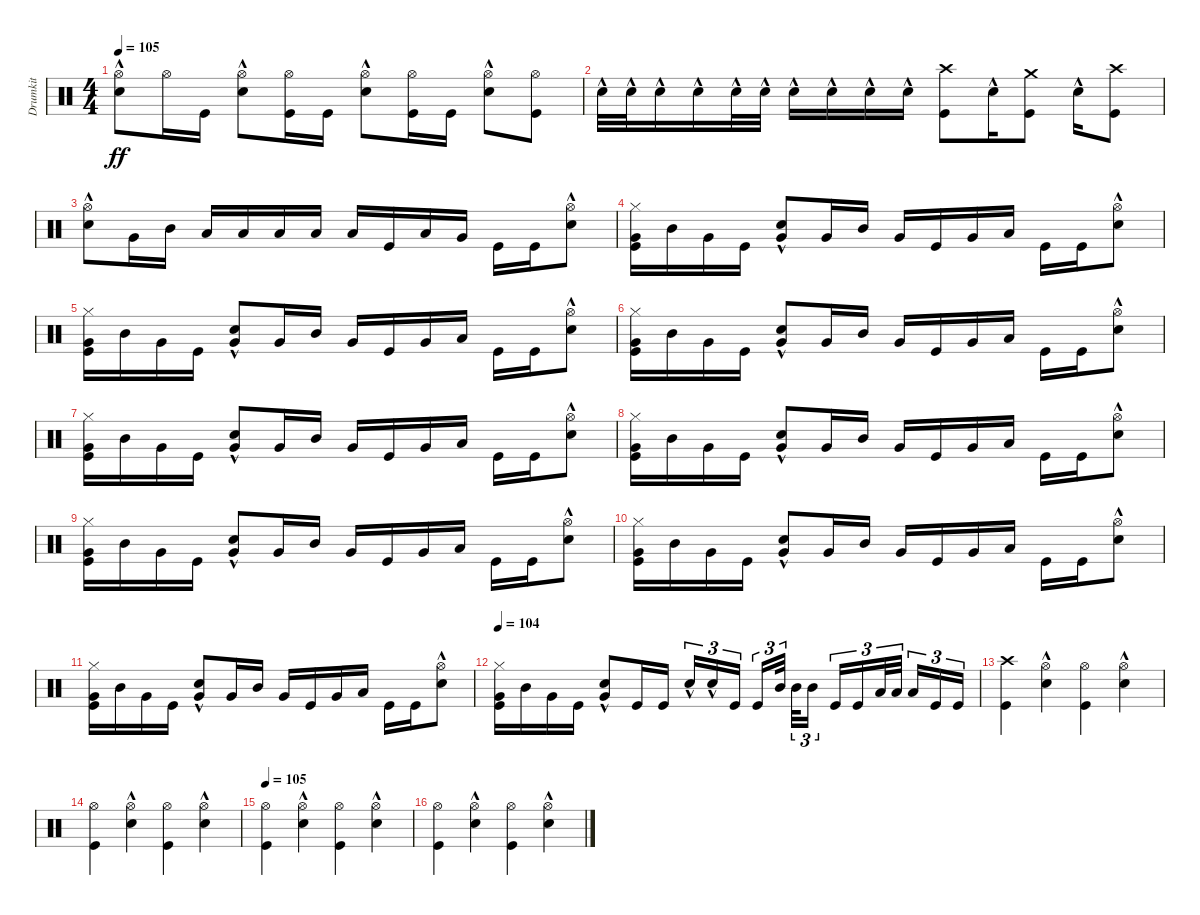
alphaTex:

\track ("Drumkit" "Drumkit") {instrument percussion}
\staff {score}
\articulation defaults
\ts (4 4)
\tempo 105
\clef neutral
\ks c
("Snare (hit) 2"{hac} "Hi-Hat (open)").8{dy ff} "Hi-Hat (open)".16 "Kick (hit)".16 ("Snare (hit) 2"{hac} "Hi-Hat (open)").8 ("Kick (hit)" "Hi-Hat (open)").16 "Kick (hit)".16 ("Hi-Hat (open)" "Snare (hit) 2"{hac}).8 ("Kick (hit)" "Hi-Hat (open)").16 "Kick (hit)".16 ("Snare (hit) 2"{hac} "Hi-Hat (open)").8 ("Kick (hit)" "Hi-Hat (open)").8 |
\ks aminor "Snare (hit) 2"{hac}.32 "Snare (hit) 2"{hac}.32 "Snare (hit) 2"{hac}.16 "Snare (hit) 2"{hac}.16 "Snare (hit) 2"{hac}.32 "Snare (hit) 2"{hac}.32 "Snare (hit) 2"{hac}.16 "Snare (hit) 2"{hac}.16 "Snare (hit) 2"{hac}.16 "Snare (hit) 2"{hac}.16
("Kick (hit)" "Crash high (hit)").8 "Snare (hit) 2"{hac}.16 ("Kick (hit)" "Crash medium (hit)").8 "Snare (hit) 2"{hac}.16 ("Kick (hit)" "Crash high (hit)").8 |
("Snare (hit) 2"{hac} "Hi-Hat (open)").8 "Very Low Tom (hit)".16 "Mid Tom (hit)".16 "Low Floor Tom (hit)".16 "Low Tom (hit)".16 "Low Floor Tom (hit)".16 "Low Tom (hit)".16 "Low Floor Tom (hit)".16 "Kick (hit)".16 "Low Floor Tom (hit)".16 "Very Low Tom (hit)".16 "Kick (hit)".16 "Kick (hit)".16 ("Snare (hit) 2"{hac} "Hi-Hat (open)").8 |
("Hi-Hat (closed)" "Kick (hit)" "Very Low Tom (hit)").16 "Mid Tom (hit)".16 "Very Low Tom (hit)".16 "Kick (hit)".16 ("Very Low Tom (hit)" "Snare (hit) 2"{hac}).8 "Very Low Tom (hit)".16 "Mid Tom (hit)".16 "Very Low Tom (hit)".16 "Kick (hit)".16 "Very Low Tom (hit)".16 "Low Tom (hit)".16 "Kick (hit)".16 "Kick (hit)".16 ("Snare (hit) 2"{hac} "Hi-Hat (open)").8 |
("Hi-Hat (closed)" "Kick (hit)" "Very Low Tom (hit)").16 "Mid Tom (hit)".16 "Very Low Tom (hit)".16 "Kick (hit)".16 ("Very Low Tom (hit)" "Snare (hit) 2"{hac}).8 "Very Low Tom (hit)".16 "Mid Tom (hit)".16 "Very Low Tom (hit)".16 "Kick (hit)".16 "Very Low Tom (hit)".16 "Low Tom (hit)".16 "Kick (hit)".16 "Kick (hit)".16 ("Snare (hit) 2"{hac} "Hi-Hat (open)").8 |
("Hi-Hat (closed)" "Kick (hit)" "Very Low Tom (hit)").16 "Mid Tom (hit)".16 "Very Low Tom (hit)".16 "Kick (hit)".16 ("Very Low Tom (hit)" "Snare (hit) 2"{hac}).8 "Very Low Tom (hit)".16 "Mid Tom (hit)".16 "Very Low Tom (hit)".16 "Kick (hit)".16 "Very Low Tom (hit)".16 "Low Tom (hit)".16 "Kick (hit)".16 "Kick (hit)".16 ("Snare (hit) 2"{hac} "Hi-Hat (open)").8 |
("Hi-Hat (closed)" "Kick (hit)" "Very Low Tom (hit)").16 "Mid Tom (hit)".16 "Very Low Tom (hit)".16 "Kick (hit)".16 ("Very Low Tom (hit)" "Snare (hit) 2"{hac}).8 "Very Low Tom (hit)".16 "Mid Tom (hit)".16 "Very Low Tom (hit)".16 "Kick (hit)".16 "Very Low Tom (hit)".16 "Low Tom (hit)".16 "Kick (hit)".16 "Kick (hit)".16 ("Snare (hit) 2"{hac} "Hi-Hat (open)").8 |
("Hi-Hat (closed)" "Kick (hit)" "Very Low Tom (hit)").16 "Mid Tom (hit)".16 "Very Low Tom (hit)".16 "Kick (hit)".16 ("Very Low Tom (hit)" "Snare (hit) 2"{hac}).8 "Very Low Tom (hit)".16 "Mid Tom (hit)".16 "Very Low Tom (hit)".16 "Kick (hit)".16 "Very Low Tom (hit)".16 "Low Tom (hit)".16 "Kick (hit)".16 "Kick (hit)".16 ("Snare (hit) 2"{hac} "Hi-Hat (open)").8 |
("Hi-Hat (closed)" "Kick (hit)" "Very Low Tom (hit)").16 "Mid Tom (hit)".16 "Very Low Tom (hit)".16 "Kick (hit)".16 ("Very Low Tom (hit)" "Snare (hit) 2"{hac}).8 "Very Low Tom (hit)".16 "Mid Tom (hit)".16 "Very Low Tom (hit)".16 "Kick (hit)".16 "Very Low Tom (hit)".16 "Low Tom (hit)".16 "Kick (hit)".16 "Kick (hit)".16 ("Snare (hit) 2"{hac} "Hi-Hat (open)").8 |
("Hi-Hat (closed)" "Kick (hit)" "Very Low Tom (hit)").16 "Mid Tom (hit)".16 "Very Low Tom (hit)".16 "Kick (hit)".16 ("Very Low Tom (hit)" "Snare (hit) 2"{hac}).8 "Very Low Tom (hit)".16 "Mid Tom (hit)".16 "Very Low Tom (hit)".16 "Kick (hit)".16 "Very Low Tom (hit)".16 "Low Tom (hit)".16 "Kick (hit)".16 "Kick (hit)".16 ("Snare (hit) 2"{hac} "Hi-Hat (open)").8 |
("Hi-Hat (closed)" "Kick (hit)" "Very Low Tom (hit)").16 "Mid Tom (hit)".16 "Very Low Tom (hit)".16 "Kick (hit)".16 ("Very Low Tom (hit)" "Snare (hit) 2"{hac}).8 "Very Low Tom (hit)".16 "Mid Tom (hit)".16 "Very Low Tom (hit)".16 "Kick (hit)".16 "Very Low Tom (hit)".16 "Low Tom (hit)".16 "Kick (hit)".16 "Kick (hit)".16 ("Snare (hit) 2"{hac} "Hi-Hat (open)").8 |
\tempo 104
("Hi-Hat (closed)" "Kick (hit)" "Very Low Tom (hit)").16 "Mid Tom (hit)".16 "Very Low Tom (hit)".16 "Kick (hit)".16 ("Very Low Tom (hit)" "Snare (hit) 2"{hac}).8 "Kick (hit)".16 "Kick (hit)".16 "Snare (hit) 2"{hac}.16{tu (3 2)} "Snare (hit) 2"{hac}.16{tu (3 2)} "Kick (hit)".16{tu (3 2) beam splitsecondary} "Kick (hit)".16{tu (3 2)} "Mid Tom (hit)".32{tu (3 2) beam splitsecondary} "Mid Tom (hit)".32{tu (3 2)} "Mid Tom (hit)".16{tu (3 2)} "Kick (hit)".16{tu (3 2)} "Kick (hit)".16{tu (3 2)} "Low Tom (hit)".32{tu (3 2)} "Low Tom (hit)".32{tu (3 2) beam splitsecondary} "Low Tom (hit)".16{tu (3 2)} "Kick (hit)".16{tu (3 2)} "Kick (hit)".16{tu (3 2)} |
("Kick (hit)" "Crash high (hit)").4 ("Snare (hit) 2"{hac} "Hi-Hat (open)").4 ("Kick (hit)" "Hi-Hat (open)").4 ("Snare (hit) 2"{hac} "Hi-Hat (open)").4 |
("Kick (hit)" "Hi-Hat (open)").4 ("Snare (hit) 2"{hac} "Hi-Hat (open)").4 ("Kick (hit)" "Hi-Hat (open)").4 ("Snare (hit) 2"{hac} "Hi-Hat (open)").4 |
\tempo 105
("Kick (hit)" "Hi-Hat (open)").4 ("Snare (hit) 2"{hac} "Hi-Hat (open)").4 ("Kick (hit)" "Hi-Hat (open)").4 ("Snare (hit) 2"{hac} "Hi-Hat (open)").4 |
\ks c
("Kick (hit)" "Hi-Hat (open)").4 ("Snare (hit) 2"{hac} "Hi-Hat (open)").4 ("Kick (hit)" "Hi-Hat (open)").4 ("Snare (hit) 2"{hac} "Hi-Hat (open)").4
